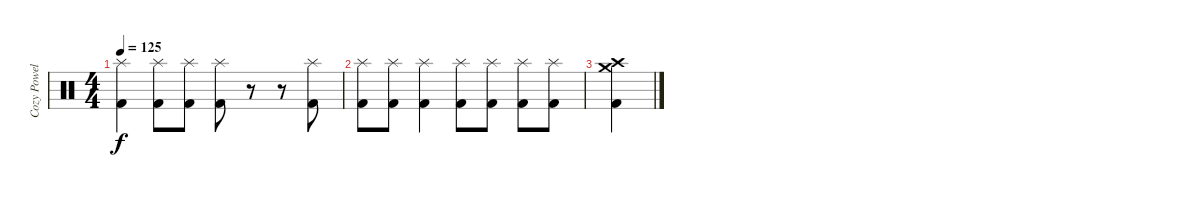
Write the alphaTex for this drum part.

\track ("Cozy Powell " "Cozy Powel") {instrument percussion}
\staff {score}
\articulation defaults
\ts (4 4)
\tempo 125
\clef neutral
\ks c
("Splash (hit)" "Kick (hit) 2").4{dy f} ("Splash (hit)" "Kick (hit) 2").8 ("Splash (hit)" "Kick (hit) 2").8 ("Splash (hit)" "Kick (hit) 2").8 r.8 r.8 ("Splash (hit)" "Kick (hit) 2").8 |
("Splash (hit)" "Kick (hit) 2").8 ("Splash (hit)" "Kick (hit) 2").8 ("Splash (hit)" "Kick (hit) 2").4 ("Splash (hit)" "Kick (hit) 2").8 ("Splash (hit)" "Kick (hit) 2").8 ("Splash (hit)" "Kick (hit) 2").8 ("Splash (hit)" "Kick (hit) 2").8 |
("Crash medium (hit)" "Crash high (hit)" "Kick (hit) 2").4
